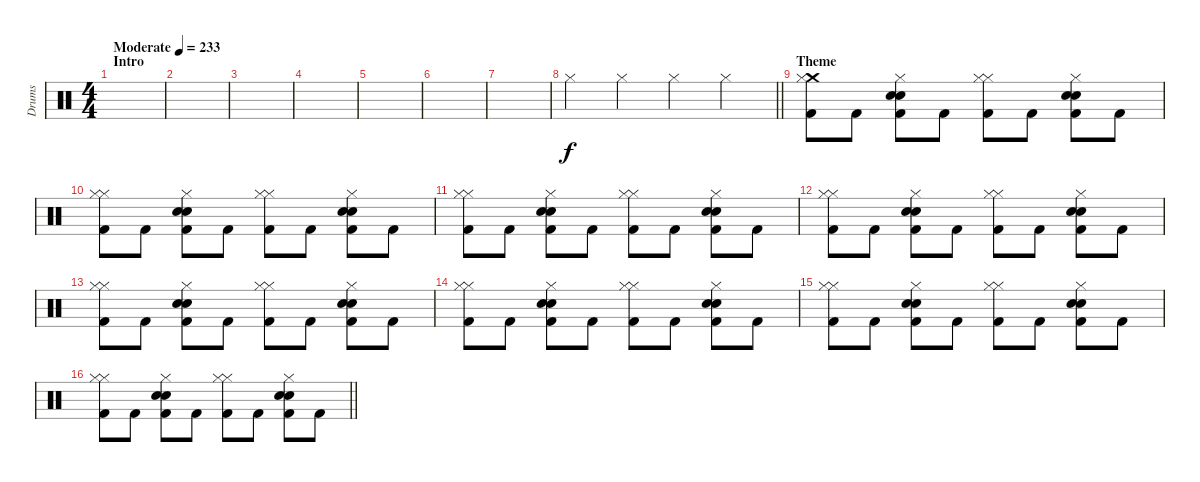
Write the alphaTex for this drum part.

\track ("Drums" "Drums") {instrument percussion}
\staff {score}
\articulation defaults
\ts (4 4)
\section ("" "Intro")
\tempo (233 "Moderate")
\clef neutral
\ks c
|
|
|
|
|
|
|
\barLineRight lightlight "Hi-Hat (closed)".4 "Hi-Hat (closed)".4 "Hi-Hat (closed)".4 "Hi-Hat (closed)".4
|
\section ("" "Theme")
("Crash medium (hit)" "Hi-Hat (closed)" "Kick (hit) 2").8 "Kick (hit) 2".8 ("Hi-Hat (closed)" "Snare (hit) 2" "Electric Snare (hit)" "Kick (hit) 2").8 "Kick (hit) 2".8 ("Hi-Hat (closed)" "Hi-Hat (closed)" "Kick (hit) 2").8 "Kick (hit) 2".8 ("Hi-Hat (closed)" "Snare (hit) 2" "Electric Snare (hit)" "Kick (hit) 2").8 "Kick (hit) 2".8 |
("Hi-Hat (closed)" "Hi-Hat (closed)" "Kick (hit) 2").8 "Kick (hit) 2".8 ("Hi-Hat (closed)" "Snare (hit) 2" "Electric Snare (hit)" "Kick (hit) 2").8 "Kick (hit) 2".8 ("Hi-Hat (closed)" "Hi-Hat (closed)" "Kick (hit) 2").8 "Kick (hit) 2".8 ("Hi-Hat (closed)" "Snare (hit) 2" "Electric Snare (hit)" "Kick (hit) 2").8 "Kick (hit) 2".8 |
("Hi-Hat (closed)" "Hi-Hat (closed)" "Kick (hit) 2").8 "Kick (hit) 2".8 ("Hi-Hat (closed)" "Snare (hit) 2" "Electric Snare (hit)" "Kick (hit) 2").8 "Kick (hit) 2".8 ("Hi-Hat (closed)" "Hi-Hat (closed)" "Kick (hit) 2").8 "Kick (hit) 2".8 ("Hi-Hat (closed)" "Snare (hit) 2" "Electric Snare (hit)" "Kick (hit) 2").8 "Kick (hit) 2".8 |
("Hi-Hat (closed)" "Hi-Hat (closed)" "Kick (hit) 2").8 "Kick (hit) 2".8 ("Hi-Hat (closed)" "Snare (hit) 2" "Electric Snare (hit)" "Kick (hit) 2").8 "Kick (hit) 2".8 ("Hi-Hat (closed)" "Hi-Hat (closed)" "Kick (hit) 2").8 "Kick (hit) 2".8 ("Hi-Hat (closed)" "Snare (hit) 2" "Electric Snare (hit)" "Kick (hit) 2").8 "Kick (hit) 2".8 |
("Hi-Hat (closed)" "Hi-Hat (closed)" "Kick (hit) 2").8 "Kick (hit) 2".8 ("Hi-Hat (closed)" "Snare (hit) 2" "Electric Snare (hit)" "Kick (hit) 2").8 "Kick (hit) 2".8 ("Hi-Hat (closed)" "Hi-Hat (closed)" "Kick (hit) 2").8 "Kick (hit) 2".8 ("Hi-Hat (closed)" "Snare (hit) 2" "Electric Snare (hit)" "Kick (hit) 2").8 "Kick (hit) 2".8 |
("Hi-Hat (closed)" "Hi-Hat (closed)" "Kick (hit) 2").8 "Kick (hit) 2".8 ("Hi-Hat (closed)" "Snare (hit) 2" "Electric Snare (hit)" "Kick (hit) 2").8 "Kick (hit) 2".8 ("Hi-Hat (closed)" "Hi-Hat (closed)" "Kick (hit) 2").8 "Kick (hit) 2".8 ("Hi-Hat (closed)" "Snare (hit) 2" "Electric Snare (hit)" "Kick (hit) 2").8 "Kick (hit) 2".8 |
("Hi-Hat (closed)" "Hi-Hat (closed)" "Kick (hit) 2").8 "Kick (hit) 2".8 ("Hi-Hat (closed)" "Snare (hit) 2" "Electric Snare (hit)" "Kick (hit) 2").8 "Kick (hit) 2".8 ("Hi-Hat (closed)" "Hi-Hat (closed)" "Kick (hit) 2").8 "Kick (hit) 2".8 ("Hi-Hat (closed)" "Snare (hit) 2" "Electric Snare (hit)" "Kick (hit) 2").8 "Kick (hit) 2".8 |
\barLineRight lightlight
("Hi-Hat (closed)" "Hi-Hat (closed)" "Kick (hit) 2").8 "Kick (hit) 2".8 ("Hi-Hat (closed)" "Snare (hit) 2" "Electric Snare (hit)" "Kick (hit) 2").8 "Kick (hit) 2".8 ("Hi-Hat (closed)" "Hi-Hat (closed)" "Kick (hit) 2").8 "Kick (hit) 2".8 ("Hi-Hat (closed)" "Snare (hit) 2" "Electric Snare (hit)" "Kick (hit) 2").8 "Kick (hit) 2".8
